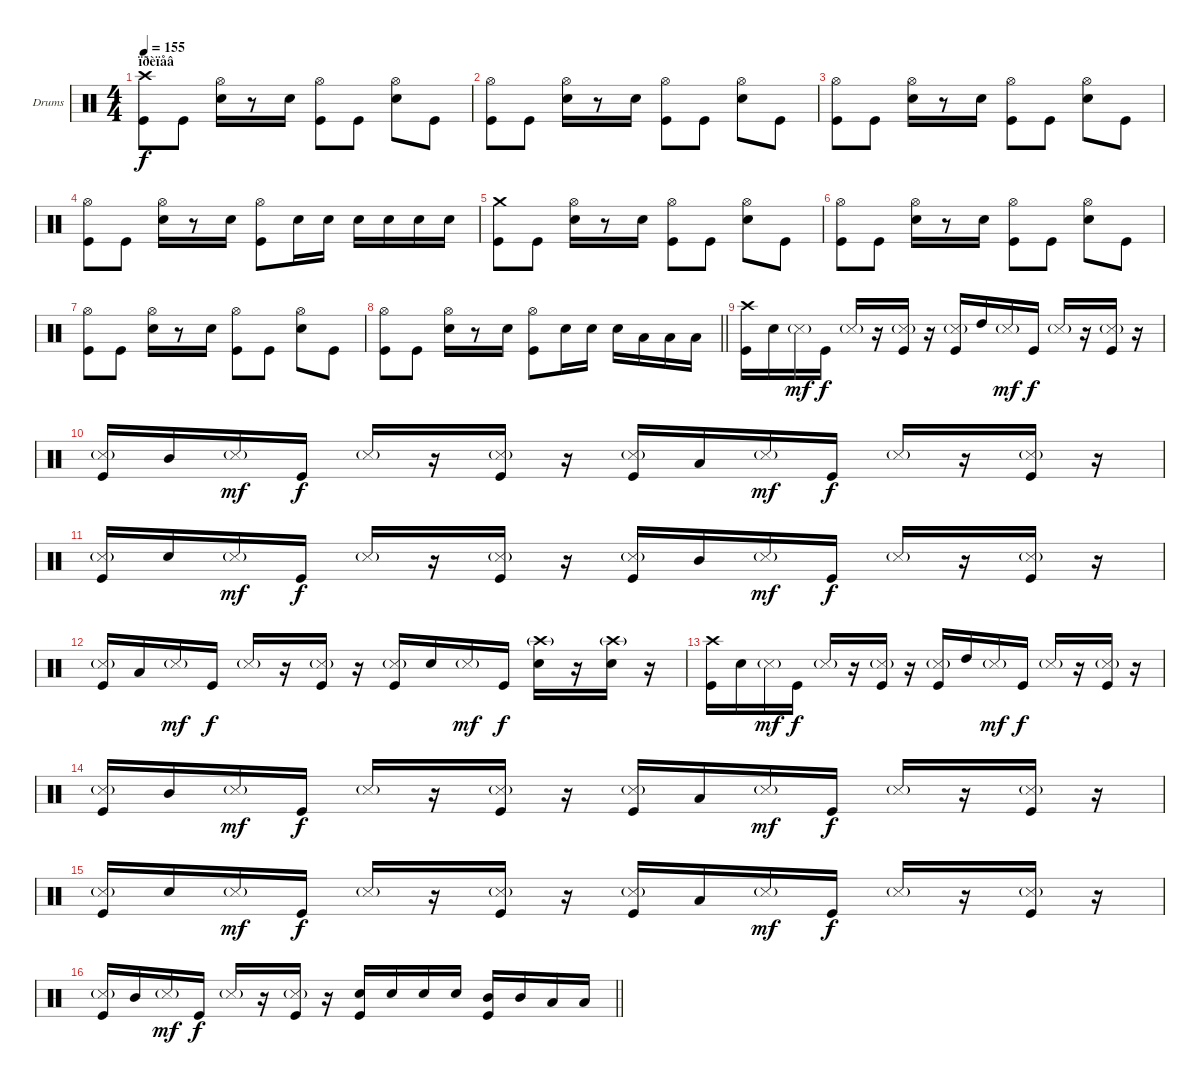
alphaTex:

\bracketExtendMode groupsimilarinstruments
\firstSystemTrackNameOrientation horizontal
\otherSystemsTrackNameOrientation horizontal
\track ("Drumkit" "Drums") {instrument percussion}
\staff {score}
\articulation defaults
\ts (4 4)
\section ("" "ïðèïåâ")
\tempo 155
\clef neutral
\ks c
("Crash high (hit)" "Kick (hit)").8{dy f} "Kick (hit)".8 ("Hi-Hat (open)" "Snare (hit) 2").16 r.8 "Snare (hit) 2".16 ("Hi-Hat (open)" "Kick (hit)").8 "Kick (hit)".8 ("Hi-Hat (open)" "Snare (hit) 2").8 "Kick (hit)".8 |
("Hi-Hat (open)" "Kick (hit)").8 "Kick (hit)".8 ("Hi-Hat (open)" "Snare (hit) 2").16 r.8 "Snare (hit) 2".16 ("Hi-Hat (open)" "Kick (hit)").8 "Kick (hit)".8 ("Hi-Hat (open)" "Snare (hit) 2").8 "Kick (hit)".8 |
("Hi-Hat (open)" "Kick (hit)").8 "Kick (hit)".8 ("Hi-Hat (open)" "Snare (hit) 2").16 r.8 "Snare (hit) 2".16 ("Hi-Hat (open)" "Kick (hit)").8 "Kick (hit)".8 ("Hi-Hat (open)" "Snare (hit) 2").8 "Kick (hit)".8 |
("Hi-Hat (open)" "Kick (hit)").8 "Kick (hit)".8 ("Hi-Hat (open)" "Snare (hit) 2").16 r.8 "Snare (hit) 2".16 ("Hi-Hat (open)" "Kick (hit)").8 "Snare (hit) 2".16 "Snare (hit) 2".16 "Snare (hit) 2".16 "Snare (hit) 2".16 "Snare (hit) 2".16 "Snare (hit) 2".16 |
("Crash medium (hit)" "Kick (hit)").8 "Kick (hit)".8 ("Hi-Hat (open)" "Snare (hit) 2").16 r.8 "Snare (hit) 2".16 ("Hi-Hat (open)" "Kick (hit)").8 "Kick (hit)".8 ("Hi-Hat (open)" "Snare (hit) 2").8 "Kick (hit)".8 |
("Hi-Hat (open)" "Kick (hit)").8 "Kick (hit)".8 ("Hi-Hat (open)" "Snare (hit) 2").16 r.8 "Snare (hit) 2".16 ("Hi-Hat (open)" "Kick (hit)").8 "Kick (hit)".8 ("Hi-Hat (open)" "Snare (hit) 2").8 "Kick (hit)".8 |
("Hi-Hat (open)" "Kick (hit)").8 "Kick (hit)".8 ("Hi-Hat (open)" "Snare (hit) 2").16 r.8 "Snare (hit) 2".16 ("Hi-Hat (open)" "Kick (hit)").8 "Kick (hit)".8 ("Hi-Hat (open)" "Snare (hit) 2").8 "Kick (hit)".8 |
\barLineRight lightlight
("Hi-Hat (open)" "Kick (hit)").8 "Kick (hit)".8 ("Hi-Hat (open)" "Snare (hit) 2").16 r.8 "Snare (hit) 2".16 ("Hi-Hat (open)" "Kick (hit)").8 "Snare (hit) 2".16 "Snare (hit) 2".16 "Snare (hit) 2".16 "Low Tom (hit)".16 "Low Tom (hit)".16 "Low Tom (hit)".16 |
\section ("" "")
("Crash high (hit)" "Kick (hit)").16 "Snare (hit) 2".16 "Snare (side stick) 3"{g}.16{dy mf} "Kick (hit)".16{dy f} "Snare (side stick) 3"{g}.16 r.16 ("Snare (side stick) 3"{g} "Kick (hit)").16 r.16 ("Snare (side stick) 3"{g} "Kick (hit)").16 "High Tom (hit)".16 "Snare (side stick) 3"{g}.16{dy mf} "Kick (hit)".16{dy f} "Snare (side stick) 3"{g}.16 r.16 ("Snare (side stick) 3"{g} "Kick (hit)").16 r.16 |
("Snare (side stick) 3"{g} "Kick (hit)").16 "Mid Tom (hit)".16 "Snare (side stick) 3"{g}.16{dy mf} "Kick (hit)".16{dy f} "Snare (side stick) 3"{g}.16 r.16 ("Snare (side stick) 3"{g} "Kick (hit)").16 r.16 ("Snare (side stick) 3"{g} "Kick (hit)").16 "Low Tom (hit)".16 "Snare (side stick) 3"{g}.16{dy mf} "Kick (hit)".16{dy f} "Snare (side stick) 3"{g}.16 r.16 ("Snare (side stick) 3"{g} "Kick (hit)").16 r.16 |
("Snare (side stick) 3"{g} "Kick (hit)").16 "Snare (hit) 2".16 "Snare (side stick) 3"{g}.16{dy mf} "Kick (hit)".16{dy f} "Snare (side stick) 3"{g}.16 r.16 ("Snare (side stick) 3"{g} "Kick (hit)").16 r.16 ("Snare (side stick) 3"{g} "Kick (hit)").16 "Mid Tom (hit)".16 "Snare (side stick) 3"{g}.16{dy mf} "Kick (hit)".16{dy f} "Snare (side stick) 3"{g}.16 r.16 ("Snare (side stick) 3"{g} "Kick (hit)").16 r.16 |
("Snare (side stick) 3"{g} "Kick (hit)").16 "Low Tom (hit)".16 "Snare (side stick) 3"{g}.16{dy mf} "Kick (hit)".16{dy f} "Snare (side stick) 3"{g}.16 r.16 ("Snare (side stick) 3"{g} "Kick (hit)").16 r.16 ("Snare (side stick) 3"{g} "Kick (hit)").16 "Snare (hit) 2".16 "Snare (side stick) 3"{g}.16{dy mf} "Kick (hit)".16{dy f} ("Crash high (hit)"{g} "Snare (hit) 2").16 r.16 ("Crash high (hit)"{g} "Snare (hit) 2").16 r.16 |
("Crash high (hit)" "Kick (hit)").16 "Snare (hit) 2".16 "Snare (side stick) 3"{g}.16{dy mf} "Kick (hit)".16{dy f} "Snare (side stick) 3"{g}.16 r.16 ("Snare (side stick) 3"{g} "Kick (hit)").16 r.16 ("Snare (side stick) 3"{g} "Kick (hit)").16 "High Tom (hit)".16 "Snare (side stick) 3"{g}.16{dy mf} "Kick (hit)".16{dy f} "Snare (side stick) 3"{g}.16 r.16 ("Snare (side stick) 3"{g} "Kick (hit)").16 r.16 |
("Snare (side stick) 3"{g} "Kick (hit)").16 "Mid Tom (hit)".16 "Snare (side stick) 3"{g}.16{dy mf} "Kick (hit)".16{dy f} "Snare (side stick) 3"{g}.16 r.16 ("Snare (side stick) 3"{g} "Kick (hit)").16 r.16 ("Snare (side stick) 3"{g} "Kick (hit)").16 "Low Tom (hit)".16 "Snare (side stick) 3"{g}.16{dy mf} "Kick (hit)".16{dy f} "Snare (side stick) 3"{g}.16 r.16 ("Snare (side stick) 3"{g} "Kick (hit)").16 r.16 |
("Snare (side stick) 3"{g} "Kick (hit)").16 "Snare (hit) 2".16 "Snare (side stick) 3"{g}.16{dy mf} "Kick (hit)".16{dy f} "Snare (side stick) 3"{g}.16 r.16 ("Snare (side stick) 3"{g} "Kick (hit)").16 r.16 ("Snare (side stick) 3"{g} "Kick (hit)").16 "Low Tom (hit)".16 "Snare (side stick) 3"{g}.16{dy mf} "Kick (hit)".16{dy f} "Snare (side stick) 3"{g}.16 r.16 ("Snare (side stick) 3"{g} "Kick (hit)").16 r.16 |
\barLineRight lightlight
("Snare (side stick) 3"{g} "Kick (hit)").16 "Mid Tom (hit)".16 "Snare (side stick) 3"{g}.16{dy mf} "Kick (hit)".16{dy f} "Snare (side stick) 3"{g}.16 r.16 ("Snare (side stick) 3"{g} "Kick (hit)").16 r.16 ("Snare (hit) 2" "Kick (hit)").16 "Snare (hit) 2".16 "Snare (hit) 2".16 "Snare (hit) 2".16 ("Mid Tom (hit)" "Kick (hit)").16 "Mid Tom (hit)".16 "Low Tom (hit)".16 "Low Tom (hit)".16
